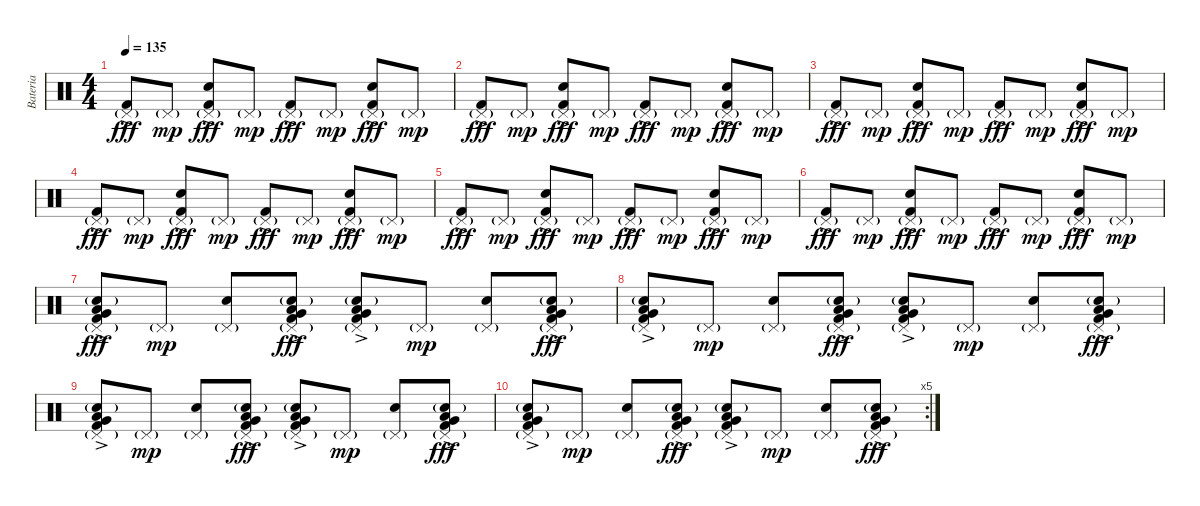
\track ("Bateria" "Bateria") {instrument percussion}
\staff {score}
\articulation defaults
\ts (4 4)
\tempo 135
\clef neutral
\ks c
("Pedal Hi-Hat (hit)"{g} "Kick (hit) 2"{ac}).8{dy fff} "Pedal Hi-Hat (hit)"{g}.8{dy mp} ("Pedal Hi-Hat (hit)"{g} "Snare (hit) 2" "Kick (hit) 2"{ac}).8{dy fff} "Pedal Hi-Hat (hit)"{g}.8{dy mp} ("Pedal Hi-Hat (hit)"{g} "Kick (hit) 2"{ac}).8{dy fff} "Pedal Hi-Hat (hit)"{g}.8{dy mp} ("Pedal Hi-Hat (hit)"{g} "Snare (hit) 2" "Kick (hit) 2"{ac}).8{dy fff} "Pedal Hi-Hat (hit)"{g}.8{dy mp} |
("Pedal Hi-Hat (hit)"{g} "Kick (hit) 2"{ac}).8{dy fff} "Pedal Hi-Hat (hit)"{g}.8{dy mp} ("Pedal Hi-Hat (hit)"{g} "Snare (hit) 2" "Kick (hit) 2"{ac}).8{dy fff} "Pedal Hi-Hat (hit)"{g}.8{dy mp} ("Pedal Hi-Hat (hit)"{g} "Kick (hit) 2"{ac}).8{dy fff} "Pedal Hi-Hat (hit)"{g}.8{dy mp} ("Pedal Hi-Hat (hit)"{g} "Snare (hit) 2" "Kick (hit) 2"{ac}).8{dy fff} "Pedal Hi-Hat (hit)"{g}.8{dy mp} |
("Pedal Hi-Hat (hit)"{g} "Kick (hit) 2"{ac}).8{dy fff} "Pedal Hi-Hat (hit)"{g}.8{dy mp} ("Pedal Hi-Hat (hit)"{g} "Snare (hit) 2" "Kick (hit) 2"{ac}).8{dy fff} "Pedal Hi-Hat (hit)"{g}.8{dy mp} ("Pedal Hi-Hat (hit)"{g} "Kick (hit) 2"{ac}).8{dy fff} "Pedal Hi-Hat (hit)"{g}.8{dy mp} ("Pedal Hi-Hat (hit)"{g} "Snare (hit) 2" "Kick (hit) 2"{ac}).8{dy fff} "Pedal Hi-Hat (hit)"{g}.8{dy mp} |
("Pedal Hi-Hat (hit)"{g} "Kick (hit) 2"{ac}).8{dy fff} "Pedal Hi-Hat (hit)"{g}.8{dy mp} ("Pedal Hi-Hat (hit)"{g} "Snare (hit) 2" "Kick (hit) 2"{ac}).8{dy fff} "Pedal Hi-Hat (hit)"{g}.8{dy mp} ("Pedal Hi-Hat (hit)"{g} "Kick (hit) 2"{ac}).8{dy fff} "Pedal Hi-Hat (hit)"{g}.8{dy mp} ("Pedal Hi-Hat (hit)"{g} "Snare (hit) 2" "Kick (hit) 2"{ac}).8{dy fff} "Pedal Hi-Hat (hit)"{g}.8{dy mp} |
("Pedal Hi-Hat (hit)"{g} "Kick (hit) 2"{ac}).8{dy fff} "Pedal Hi-Hat (hit)"{g}.8{dy mp} ("Pedal Hi-Hat (hit)"{g} "Snare (hit) 2" "Kick (hit) 2"{ac}).8{dy fff} "Pedal Hi-Hat (hit)"{g}.8{dy mp} ("Pedal Hi-Hat (hit)"{g} "Kick (hit) 2"{ac}).8{dy fff} "Pedal Hi-Hat (hit)"{g}.8{dy mp} ("Pedal Hi-Hat (hit)"{g} "Snare (hit) 2" "Kick (hit) 2"{ac}).8{dy fff} "Pedal Hi-Hat (hit)"{g}.8{dy mp} |
("Pedal Hi-Hat (hit)"{g} "Kick (hit) 2"{ac}).8{dy fff} "Pedal Hi-Hat (hit)"{g}.8{dy mp} ("Pedal Hi-Hat (hit)"{g} "Snare (hit) 2" "Kick (hit) 2"{ac}).8{dy fff} "Pedal Hi-Hat (hit)"{g}.8{dy mp} ("Pedal Hi-Hat (hit)"{g} "Kick (hit) 2"{ac}).8{dy fff} "Pedal Hi-Hat (hit)"{g}.8{dy mp} ("Pedal Hi-Hat (hit)"{g} "Snare (hit) 2" "Kick (hit) 2"{ac}).8{dy fff} "Pedal Hi-Hat (hit)"{g}.8{dy mp} |
("Pedal Hi-Hat (hit)"{g} "Snare (hit) 2"{g} "Low Floor Tom (hit)"{ac} "Very Low Tom (hit)"{ac} "Kick (hit) 2"{ac}).8{dy fff} "Pedal Hi-Hat (hit)"{g}.8{dy mp} ("Pedal Hi-Hat (hit)"{g} "Snare (hit) 2").8 ("Pedal Hi-Hat (hit)"{g} "Snare (hit) 2"{g} "Low Floor Tom (hit)"{ac} "Very Low Tom (hit)"{ac} "Kick (hit) 2"{ac}).8{dy fff} ("Pedal Hi-Hat (hit)"{g} "Snare (hit) 2"{g} "Low Floor Tom (hit)"{ac} "Very Low Tom (hit)"{ac} "Kick (hit) 2"{ac}).8 "Pedal Hi-Hat (hit)"{g}.8{dy mp} ("Pedal Hi-Hat (hit)"{g} "Snare (hit) 2").8 ("Pedal Hi-Hat (hit)"{g} "Snare (hit) 2"{g} "Low Floor Tom (hit)"{ac} "Very Low Tom (hit)"{ac} "Kick (hit) 2"{ac}).8{dy fff} |
("Pedal Hi-Hat (hit)"{g} "Snare (hit) 2"{g} "Low Floor Tom (hit)"{ac} "Very Low Tom (hit)"{ac} "Kick (hit) 2"{ac}).8 "Pedal Hi-Hat (hit)"{g}.8{dy mp} ("Pedal Hi-Hat (hit)"{g} "Snare (hit) 2").8 ("Pedal Hi-Hat (hit)"{g} "Snare (hit) 2"{g} "Low Floor Tom (hit)"{ac} "Very Low Tom (hit)"{ac} "Kick (hit) 2"{ac}).8{dy fff} ("Pedal Hi-Hat (hit)"{g} "Snare (hit) 2"{g} "Low Floor Tom (hit)"{ac} "Very Low Tom (hit)"{ac} "Kick (hit) 2"{ac}).8 "Pedal Hi-Hat (hit)"{g}.8{dy mp} ("Pedal Hi-Hat (hit)"{g} "Snare (hit) 2").8 ("Pedal Hi-Hat (hit)"{g} "Snare (hit) 2"{g} "Low Floor Tom (hit)"{ac} "Very Low Tom (hit)"{ac} "Kick (hit) 2"{ac}).8{dy fff} |
("Pedal Hi-Hat (hit)"{g} "Snare (hit) 2"{g} "Low Floor Tom (hit)"{ac} "Very Low Tom (hit)"{ac} "Kick (hit) 2"{ac}).8 "Pedal Hi-Hat (hit)"{g}.8{dy mp} ("Pedal Hi-Hat (hit)"{g} "Snare (hit) 2").8 ("Pedal Hi-Hat (hit)"{g} "Snare (hit) 2"{g} "Low Floor Tom (hit)"{ac} "Very Low Tom (hit)"{ac} "Kick (hit) 2"{ac}).8{dy fff} ("Pedal Hi-Hat (hit)"{g} "Snare (hit) 2"{g} "Low Floor Tom (hit)"{ac} "Very Low Tom (hit)"{ac} "Kick (hit) 2"{ac}).8 "Pedal Hi-Hat (hit)"{g}.8{dy mp} ("Pedal Hi-Hat (hit)"{g} "Snare (hit) 2").8 ("Pedal Hi-Hat (hit)"{g} "Snare (hit) 2"{g} "Low Floor Tom (hit)"{ac} "Very Low Tom (hit)"{ac} "Kick (hit) 2"{ac}).8{dy fff} |
\rc 5
("Pedal Hi-Hat (hit)"{g} "Snare (hit) 2"{g} "Low Floor Tom (hit)"{ac} "Very Low Tom (hit)"{ac} "Kick (hit) 2"{ac}).8 "Pedal Hi-Hat (hit)"{g}.8{dy mp} ("Pedal Hi-Hat (hit)"{g} "Snare (hit) 2").8 ("Pedal Hi-Hat (hit)"{g} "Snare (hit) 2"{g} "Low Floor Tom (hit)"{ac} "Very Low Tom (hit)"{ac} "Kick (hit) 2"{ac}).8{dy fff} ("Pedal Hi-Hat (hit)"{g} "Snare (hit) 2"{g} "Low Floor Tom (hit)"{ac} "Very Low Tom (hit)"{ac} "Kick (hit) 2"{ac}).8 "Pedal Hi-Hat (hit)"{g}.8{dy mp} ("Pedal Hi-Hat (hit)"{g} "Snare (hit) 2").8 ("Pedal Hi-Hat (hit)"{g} "Snare (hit) 2"{g} "Low Floor Tom (hit)"{ac} "Very Low Tom (hit)"{ac} "Kick (hit) 2"{ac}).8{dy fff}
